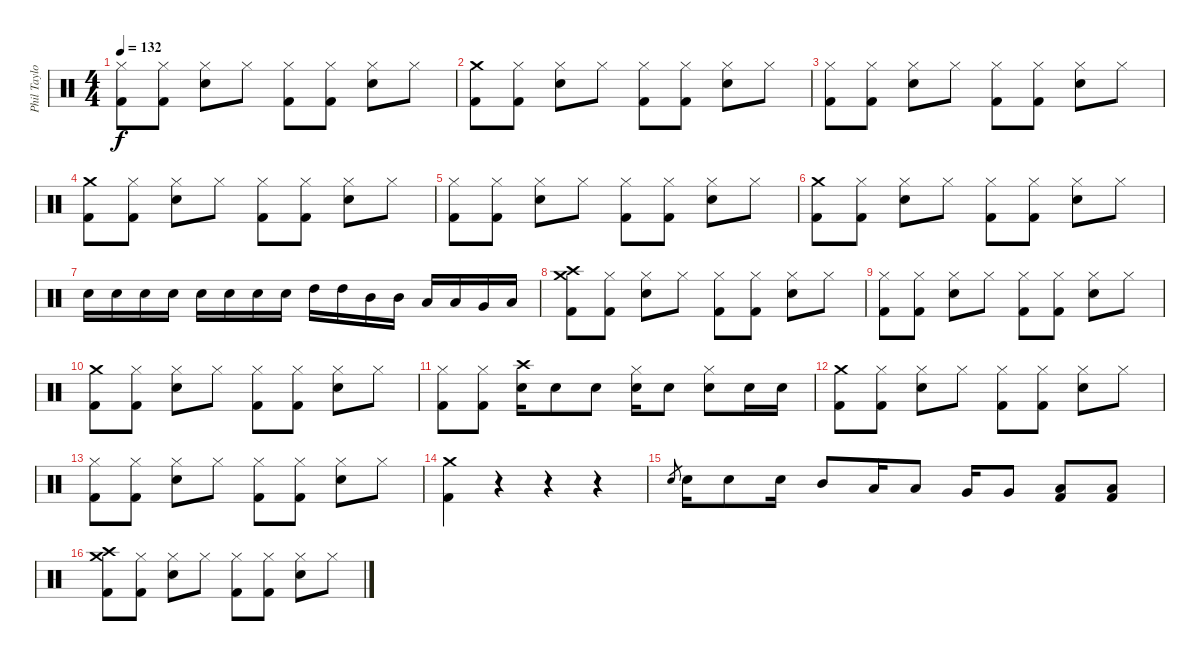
\track ("Phil Taylor" "Phil Taylo") {instrument percussion}
\staff {score}
\articulation defaults
\ts (4 4)
\tempo 132
\clef neutral
\ks c
("Hi-Hat (closed)" "Kick (hit) 2").8{dy f} ("Hi-Hat (closed)" "Kick (hit) 2").8 ("Hi-Hat (closed)" "Snare (hit) 2").8 "Hi-Hat (closed)".8 ("Hi-Hat (closed)" "Kick (hit) 2").8 ("Hi-Hat (closed)" "Kick (hit) 2").8 ("Hi-Hat (closed)" "Snare (hit) 2").8 "Hi-Hat (closed)".8 |
("Crash medium (hit)" "Kick (hit) 2").8 ("Hi-Hat (closed)" "Kick (hit) 2").8 ("Hi-Hat (closed)" "Snare (hit) 2").8 "Hi-Hat (closed)".8 ("Hi-Hat (closed)" "Kick (hit) 2").8 ("Hi-Hat (closed)" "Kick (hit) 2").8 ("Hi-Hat (closed)" "Snare (hit) 2").8 "Hi-Hat (closed)".8 |
("Hi-Hat (closed)" "Kick (hit) 2").8 ("Hi-Hat (closed)" "Kick (hit) 2").8 ("Hi-Hat (closed)" "Snare (hit) 2").8 "Hi-Hat (closed)".8 ("Hi-Hat (closed)" "Kick (hit) 2").8 ("Hi-Hat (closed)" "Kick (hit) 2").8 ("Hi-Hat (closed)" "Snare (hit) 2").8 "Hi-Hat (closed)".8 |
("Crash medium (hit)" "Kick (hit) 2").8 ("Hi-Hat (closed)" "Kick (hit) 2").8 ("Hi-Hat (closed)" "Snare (hit) 2").8 "Hi-Hat (closed)".8 ("Hi-Hat (closed)" "Kick (hit) 2").8 ("Hi-Hat (closed)" "Kick (hit) 2").8 ("Hi-Hat (closed)" "Snare (hit) 2").8 "Hi-Hat (closed)".8 |
("Hi-Hat (closed)" "Kick (hit) 2").8 ("Hi-Hat (closed)" "Kick (hit) 2").8 ("Hi-Hat (closed)" "Snare (hit) 2").8 "Hi-Hat (closed)".8 ("Hi-Hat (closed)" "Kick (hit) 2").8 ("Hi-Hat (closed)" "Kick (hit) 2").8 ("Hi-Hat (closed)" "Snare (hit) 2").8 "Hi-Hat (closed)".8 |
("Crash medium (hit)" "Kick (hit) 2").8 ("Hi-Hat (closed)" "Kick (hit) 2").8 ("Hi-Hat (closed)" "Snare (hit) 2").8 "Hi-Hat (closed)".8 ("Hi-Hat (closed)" "Kick (hit) 2").8 ("Hi-Hat (closed)" "Kick (hit) 2").8 ("Hi-Hat (closed)" "Snare (hit) 2").8 "Hi-Hat (closed)".8 |
"Snare (hit) 2".16 "Snare (hit) 2".16 "Snare (hit) 2".16 "Snare (hit) 2".16 "Snare (hit) 2".16 "Snare (hit) 2".16 "Snare (hit) 2".16 "Snare (hit) 2".16 "High Tom (hit)".16 "High Tom (hit)".16 "Mid Tom (hit)".16 "Mid Tom (hit)".16 "Low Tom (hit)".16 "Low Tom (hit)".16 "Very Low Tom (hit)".16 "Low Floor Tom (hit)".16 |
("Crash medium (hit)" "Crash high (hit)" "Kick (hit) 2").8 ("Hi-Hat (closed)" "Kick (hit) 2").8 ("Hi-Hat (closed)" "Snare (hit) 2").8 "Hi-Hat (closed)".8 ("Hi-Hat (closed)" "Kick (hit) 2").8 ("Hi-Hat (closed)" "Kick (hit) 2").8 ("Hi-Hat (closed)" "Snare (hit) 2").8 "Hi-Hat (closed)".8 |
("Hi-Hat (closed)" "Kick (hit) 2").8 ("Hi-Hat (closed)" "Kick (hit) 2").8 ("Hi-Hat (closed)" "Snare (hit) 2").8 "Hi-Hat (closed)".8 ("Hi-Hat (closed)" "Kick (hit) 2").8 ("Hi-Hat (closed)" "Kick (hit) 2").8 ("Hi-Hat (closed)" "Snare (hit) 2").8 "Hi-Hat (closed)".8 |
("Crash medium (hit)" "Kick (hit) 2").8 ("Hi-Hat (closed)" "Kick (hit) 2").8 ("Hi-Hat (closed)" "Snare (hit) 2").8 "Hi-Hat (closed)".8 ("Hi-Hat (closed)" "Kick (hit) 2").8 ("Hi-Hat (closed)" "Kick (hit) 2").8 ("Hi-Hat (closed)" "Snare (hit) 2").8 "Hi-Hat (closed)".8 |
("Hi-Hat (closed)" "Kick (hit) 2").8 ("Hi-Hat (closed)" "Kick (hit) 2").8 ("Crash high (hit)" "Snare (hit) 2").16 "Snare (hit) 2".8 "Snare (hit) 2".8 ("Hi-Hat (closed)" "Snare (hit) 2").16 "Snare (hit) 2".8 ("Hi-Hat (closed)" "Snare (hit) 2").8 "Snare (hit) 2".16 "Snare (hit) 2".16 |
("Crash medium (hit)" "Kick (hit) 2").8 ("Hi-Hat (closed)" "Kick (hit) 2").8 ("Hi-Hat (closed)" "Snare (hit) 2").8 "Hi-Hat (closed)".8 ("Hi-Hat (closed)" "Kick (hit) 2").8 ("Hi-Hat (closed)" "Kick (hit) 2").8 ("Hi-Hat (closed)" "Snare (hit) 2").8 "Hi-Hat (closed)".8 |
("Hi-Hat (closed)" "Kick (hit) 2").8 ("Hi-Hat (closed)" "Kick (hit) 2").8 ("Hi-Hat (closed)" "Snare (hit) 2").8 "Hi-Hat (closed)".8 ("Hi-Hat (closed)" "Kick (hit) 2").8 ("Hi-Hat (closed)" "Kick (hit) 2").8 ("Hi-Hat (closed)" "Snare (hit) 2").8 "Hi-Hat (closed)".8 |
("Crash medium (hit)" "Kick (hit) 2").4 r.4 r.4 r.4 |
"Snare (hit) 2".8{gr} "Snare (hit) 2".16 "Snare (hit) 2".8 "Snare (hit) 2".16 "Mid Tom (hit)".8 "Low Tom (hit)".16 "Low Tom (hit)".8 "Very Low Tom (hit)".16 "Very Low Tom (hit)".8 ("Low Floor Tom (hit)" "Kick (hit) 2").8 ("Low Floor Tom (hit)" "Kick (hit) 2").8 |
("Crash medium (hit)" "Crash high (hit)" "Kick (hit) 2").8 ("Hi-Hat (closed)" "Kick (hit) 2").8 ("Hi-Hat (closed)" "Snare (hit) 2").8 "Hi-Hat (closed)".8 ("Hi-Hat (closed)" "Kick (hit) 2").8 ("Hi-Hat (closed)" "Kick (hit) 2").8 ("Hi-Hat (closed)" "Snare (hit) 2").8 "Hi-Hat (closed)".8
